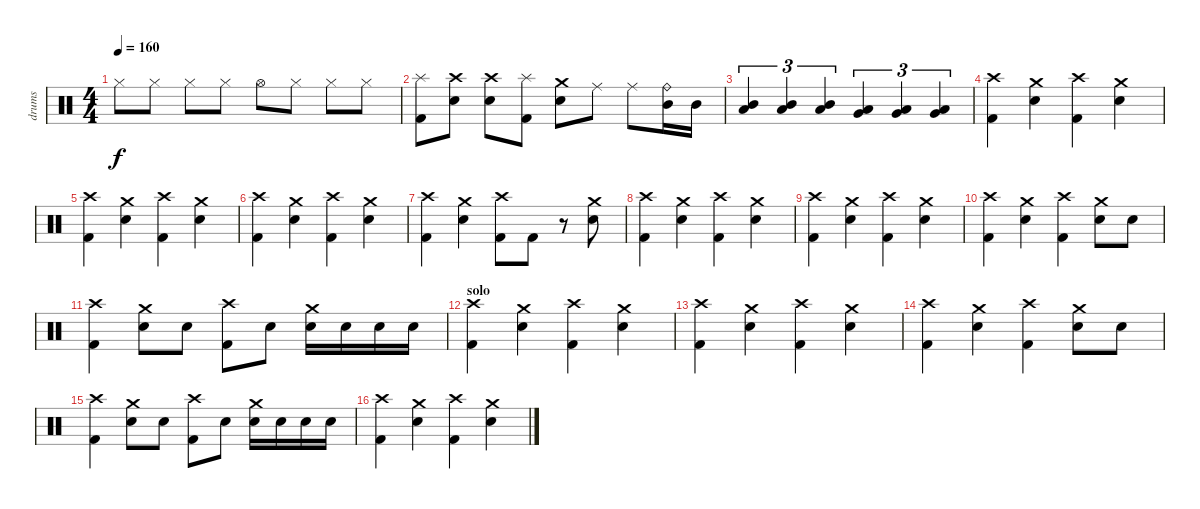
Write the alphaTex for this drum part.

\track ("drums" "drums") {instrument percussion}
\staff {score}
\articulation defaults
\ts (4 4)
\tempo 160
\clef neutral
\ks c "Hi-Hat (closed)".8{dy f} "Hi-Hat (closed)".8 "Hi-Hat (closed)".8 "Hi-Hat (closed)".8 "Hi-Hat (open)".8 "Hi-Hat (closed)".8 "Hi-Hat (closed)".8 "Hi-Hat (closed)".8
|
("Splash (hit)" "Kick (hit) 2").8 ("Crash high (hit)" "Electric Snare (hit)").8 ("Crash high (hit)" "Electric Snare (hit)").8 ("Splash (hit)" "Kick (hit) 2").8 ("Crash medium (hit)" "Electric Snare (hit)").8 "Ride (middle)".8 "Ride (middle)".8 ("Ride (bell)" "Mid Tom (hit)").16 "Mid Tom (hit)".16 |
("Mid Tom (hit)" "Low Tom (hit)").4{tu (3 2)} ("Mid Tom (hit)" "Low Tom (hit)").4{tu (3 2)} ("Mid Tom (hit)" "Low Tom (hit)").4{tu (3 2)} ("Low Tom (hit)" "Very Low Tom (hit)").4{tu (3 2)} ("Very Low Tom (hit)" "Low Floor Tom (hit)").4{tu (3 2)} ("Very Low Tom (hit)" "Low Floor Tom (hit)").4{tu (3 2)} |
("Crash high (hit)" "Kick (hit) 2").4 ("Crash medium (hit)" "Electric Snare (hit)").4 ("Crash high (hit)" "Kick (hit) 2").4 ("Crash medium (hit)" "Electric Snare (hit)").4 |
("Crash high (hit)" "Kick (hit) 2").4 ("Crash medium (hit)" "Electric Snare (hit)").4 ("Crash high (hit)" "Kick (hit) 2").4 ("Crash medium (hit)" "Electric Snare (hit)").4 |
("Crash high (hit)" "Kick (hit) 2").4 ("Crash medium (hit)" "Electric Snare (hit)").4 ("Crash high (hit)" "Kick (hit) 2").4 ("Crash medium (hit)" "Electric Snare (hit)").4 |
("Crash high (hit)" "Kick (hit) 2").4 ("Crash medium (hit)" "Electric Snare (hit)").4 ("Crash high (hit)" "Kick (hit) 2").8 "Kick (hit) 2".8 r.8 ("Crash medium (hit)" "Electric Snare (hit)").8 |
("Crash high (hit)" "Kick (hit) 2").4 ("Crash medium (hit)" "Electric Snare (hit)").4 ("Crash high (hit)" "Kick (hit) 2").4 ("Crash medium (hit)" "Electric Snare (hit)").4 |
("Crash high (hit)" "Kick (hit) 2").4 ("Crash medium (hit)" "Electric Snare (hit)").4 ("Crash high (hit)" "Kick (hit) 2").4 ("Crash medium (hit)" "Electric Snare (hit)").4 |
("Crash high (hit)" "Kick (hit) 2").4 ("Crash medium (hit)" "Electric Snare (hit)").4 ("Crash high (hit)" "Kick (hit) 2").4 ("Crash medium (hit)" "Electric Snare (hit)").8 "Electric Snare (hit)".8 |
("Crash high (hit)" "Kick (hit) 2").4 ("Crash medium (hit)" "Electric Snare (hit)").8 "Electric Snare (hit)".8 ("Crash high (hit)" "Kick (hit) 2").8 "Electric Snare (hit)".8 ("Crash medium (hit)" "Electric Snare (hit)").16 "Electric Snare (hit)".16 "Electric Snare (hit)".16 "Electric Snare (hit)".16 |
\section ("" "solo")
("Crash high (hit)" "Kick (hit) 2").4 ("Crash medium (hit)" "Electric Snare (hit)").4 ("Crash high (hit)" "Kick (hit) 2").4 ("Crash medium (hit)" "Electric Snare (hit)").4 |
("Crash high (hit)" "Kick (hit) 2").4 ("Crash medium (hit)" "Electric Snare (hit)").4 ("Crash high (hit)" "Kick (hit) 2").4 ("Crash medium (hit)" "Electric Snare (hit)").4 |
("Crash high (hit)" "Kick (hit) 2").4 ("Crash medium (hit)" "Electric Snare (hit)").4 ("Crash high (hit)" "Kick (hit) 2").4 ("Crash medium (hit)" "Electric Snare (hit)").8 "Electric Snare (hit)".8 |
("Crash high (hit)" "Kick (hit) 2").4 ("Crash medium (hit)" "Electric Snare (hit)").8 "Electric Snare (hit)".8 ("Crash high (hit)" "Kick (hit) 2").8 "Electric Snare (hit)".8 ("Crash medium (hit)" "Electric Snare (hit)").16 "Electric Snare (hit)".16 "Electric Snare (hit)".16 "Electric Snare (hit)".16 |
("Crash high (hit)" "Kick (hit) 2").4 ("Crash medium (hit)" "Electric Snare (hit)").4 ("Crash high (hit)" "Kick (hit) 2").4 ("Crash medium (hit)" "Electric Snare (hit)").4
